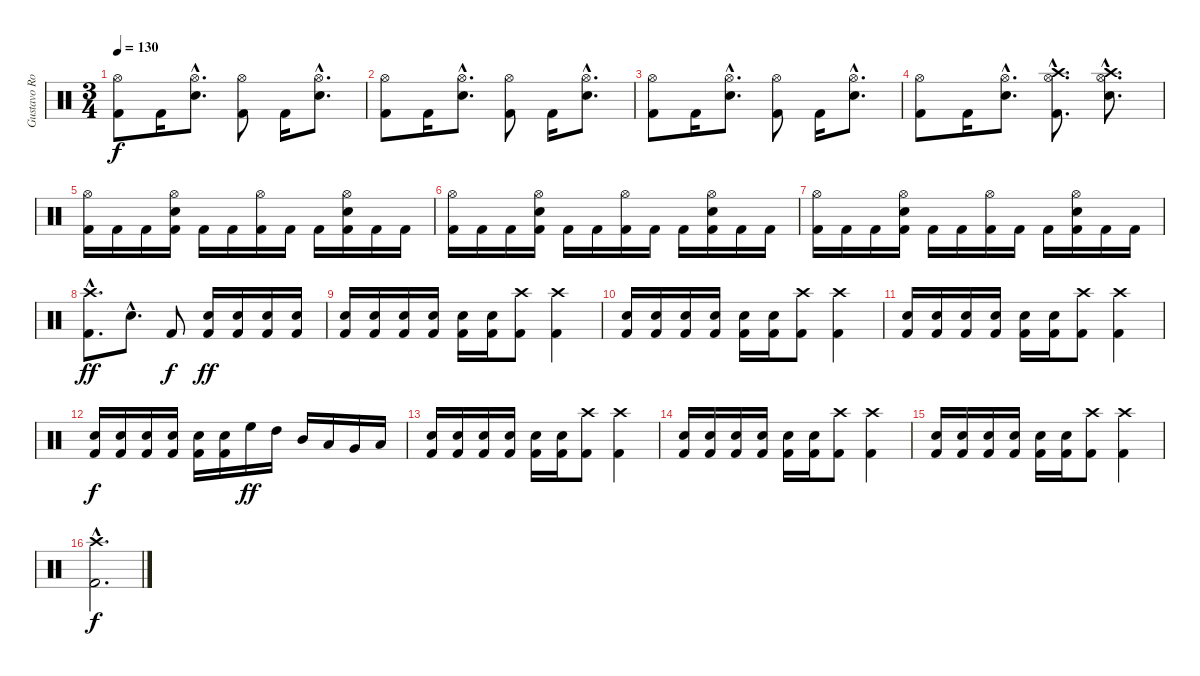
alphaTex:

\track ("Gustavo Rowek" "Gustavo Ro") {instrument percussion}
\staff {score}
\articulation defaults
\ts (3 4)
\tempo 130
\clef neutral
\ks c
("Hi-Hat (open)" "Kick (hit) 2").8{dy f} "Kick (hit) 2".16 ("Hi-Hat (open)"{hac} "Snare (hit) 2"{hac}).8{d} ("Hi-Hat (open)" "Kick (hit) 2").8 "Kick (hit) 2".16 ("Hi-Hat (open)"{hac} "Snare (hit) 2"{hac}).8{d} |
("Hi-Hat (open)" "Kick (hit) 2").8 "Kick (hit) 2".16 ("Hi-Hat (open)"{hac} "Snare (hit) 2"{hac}).8{d} ("Hi-Hat (open)" "Kick (hit) 2").8 "Kick (hit) 2".16 ("Hi-Hat (open)"{hac} "Snare (hit) 2"{hac}).8{d} |
("Hi-Hat (open)" "Kick (hit) 2").8 "Kick (hit) 2".16 ("Hi-Hat (open)"{hac} "Snare (hit) 2"{hac}).8{d} ("Hi-Hat (open)" "Kick (hit) 2").8 "Kick (hit) 2".16 ("Hi-Hat (open)"{hac} "Snare (hit) 2"{hac}).8{d} |
("Hi-Hat (open)" "Kick (hit) 2").8 "Kick (hit) 2".16 ("Hi-Hat (open)"{hac} "Snare (hit) 2"{hac}).8{d} ("Hi-Hat (open)"{hac} "Crash high (hit)"{hac} "Kick (hit) 2"{hac}).8{d} ("Hi-Hat (open)"{hac} "Crash high (hit)"{hac} "Snare (hit) 2"{hac}).8{d} |
("Hi-Hat (open)" "Kick (hit) 2").16 "Kick (hit) 2".16 "Kick (hit) 2".16 ("Hi-Hat (open)" "Snare (hit) 2" "Kick (hit) 2").16 "Kick (hit) 2".16 "Kick (hit) 2".16 ("Hi-Hat (open)" "Kick (hit) 2").16 "Kick (hit) 2".16 "Kick (hit) 2".16 ("Hi-Hat (open)" "Snare (hit) 2" "Kick (hit) 2").16 "Kick (hit) 2".16 "Kick (hit) 2".16 |
("Hi-Hat (open)" "Kick (hit) 2").16 "Kick (hit) 2".16 "Kick (hit) 2".16 ("Hi-Hat (open)" "Snare (hit) 2" "Kick (hit) 2").16 "Kick (hit) 2".16 "Kick (hit) 2".16 ("Hi-Hat (open)" "Kick (hit) 2").16 "Kick (hit) 2".16 "Kick (hit) 2".16 ("Hi-Hat (open)" "Snare (hit) 2" "Kick (hit) 2").16 "Kick (hit) 2".16 "Kick (hit) 2".16 |
("Hi-Hat (open)" "Kick (hit) 2").16 "Kick (hit) 2".16 "Kick (hit) 2".16 ("Hi-Hat (open)" "Snare (hit) 2" "Kick (hit) 2").16 "Kick (hit) 2".16 "Kick (hit) 2".16 ("Hi-Hat (open)" "Kick (hit) 2").16 "Kick (hit) 2".16 "Kick (hit) 2".16 ("Hi-Hat (open)" "Snare (hit) 2" "Kick (hit) 2").16 "Kick (hit) 2".16 "Kick (hit) 2".16 |
("Crash high (hit)"{hac} "Kick (hit) 2"{hac}).8{d dy ff} "Snare (hit) 2"{hac}.8{d} "Kick (hit) 2".8{dy f} ("Electric Snare (hit)" "Kick (hit) 2").16{dy ff} ("Electric Snare (hit)" "Kick (hit) 2").16 ("Electric Snare (hit)" "Kick (hit) 2").16 ("Electric Snare (hit)" "Kick (hit) 2").16 |
("Electric Snare (hit)" "Kick (hit) 2").16 ("Electric Snare (hit)" "Kick (hit) 2").16 ("Electric Snare (hit)" "Kick (hit) 2").16 ("Electric Snare (hit)" "Kick (hit) 2").16 ("Electric Snare (hit)" "Kick (hit) 2").16 ("Electric Snare (hit)" "Kick (hit) 2").16 ("Crash high (hit)" "Kick (hit) 2").8 ("Crash high (hit)" "Kick (hit) 2").4 |
("Electric Snare (hit)" "Kick (hit) 2").16 ("Electric Snare (hit)" "Kick (hit) 2").16 ("Electric Snare (hit)" "Kick (hit) 2").16 ("Electric Snare (hit)" "Kick (hit) 2").16 ("Electric Snare (hit)" "Kick (hit) 2").16 ("Electric Snare (hit)" "Kick (hit) 2").16 ("Crash high (hit)" "Kick (hit) 2").8 ("Crash high (hit)" "Kick (hit) 2").4 |
("Electric Snare (hit)" "Kick (hit) 2").16 ("Electric Snare (hit)" "Kick (hit) 2").16 ("Electric Snare (hit)" "Kick (hit) 2").16 ("Electric Snare (hit)" "Kick (hit) 2").16 ("Electric Snare (hit)" "Kick (hit) 2").16 ("Electric Snare (hit)" "Kick (hit) 2").16 ("Crash high (hit)" "Kick (hit) 2").8 ("Crash high (hit)" "Kick (hit) 2").4 |
("Electric Snare (hit)" "Kick (hit) 2").16{dy f} ("Electric Snare (hit)" "Kick (hit) 2").16 ("Electric Snare (hit)" "Kick (hit) 2").16 ("Electric Snare (hit)" "Kick (hit) 2").16 ("Electric Snare (hit)" "Kick (hit) 2").16 ("Electric Snare (hit)" "Kick (hit) 2").16 "High Floor Tom (hit)".16{dy ff} "High Tom (hit)".16 "Mid Tom (hit)".16 "Low Tom (hit)".16 "Very Low Tom (hit)".16 "Low Floor Tom (hit)".16 |
("Electric Snare (hit)" "Kick (hit) 2").16 ("Electric Snare (hit)" "Kick (hit) 2").16 ("Electric Snare (hit)" "Kick (hit) 2").16 ("Electric Snare (hit)" "Kick (hit) 2").16 ("Electric Snare (hit)" "Kick (hit) 2").16 ("Electric Snare (hit)" "Kick (hit) 2").16 ("Crash high (hit)" "Kick (hit) 2").8 ("Crash high (hit)" "Kick (hit) 2").4 |
("Electric Snare (hit)" "Kick (hit) 2").16 ("Electric Snare (hit)" "Kick (hit) 2").16 ("Electric Snare (hit)" "Kick (hit) 2").16 ("Electric Snare (hit)" "Kick (hit) 2").16 ("Electric Snare (hit)" "Kick (hit) 2").16 ("Electric Snare (hit)" "Kick (hit) 2").16 ("Crash high (hit)" "Kick (hit) 2").8 ("Crash high (hit)" "Kick (hit) 2").4 |
("Electric Snare (hit)" "Kick (hit) 2").16 ("Electric Snare (hit)" "Kick (hit) 2").16 ("Electric Snare (hit)" "Kick (hit) 2").16 ("Electric Snare (hit)" "Kick (hit) 2").16 ("Electric Snare (hit)" "Kick (hit) 2").16 ("Electric Snare (hit)" "Kick (hit) 2").16 ("Crash high (hit)" "Kick (hit) 2").8 ("Crash high (hit)" "Kick (hit) 2").4 |
("Crash high (hit)"{hac} "Kick (hit) 2"{hac}).2{d dy f}
